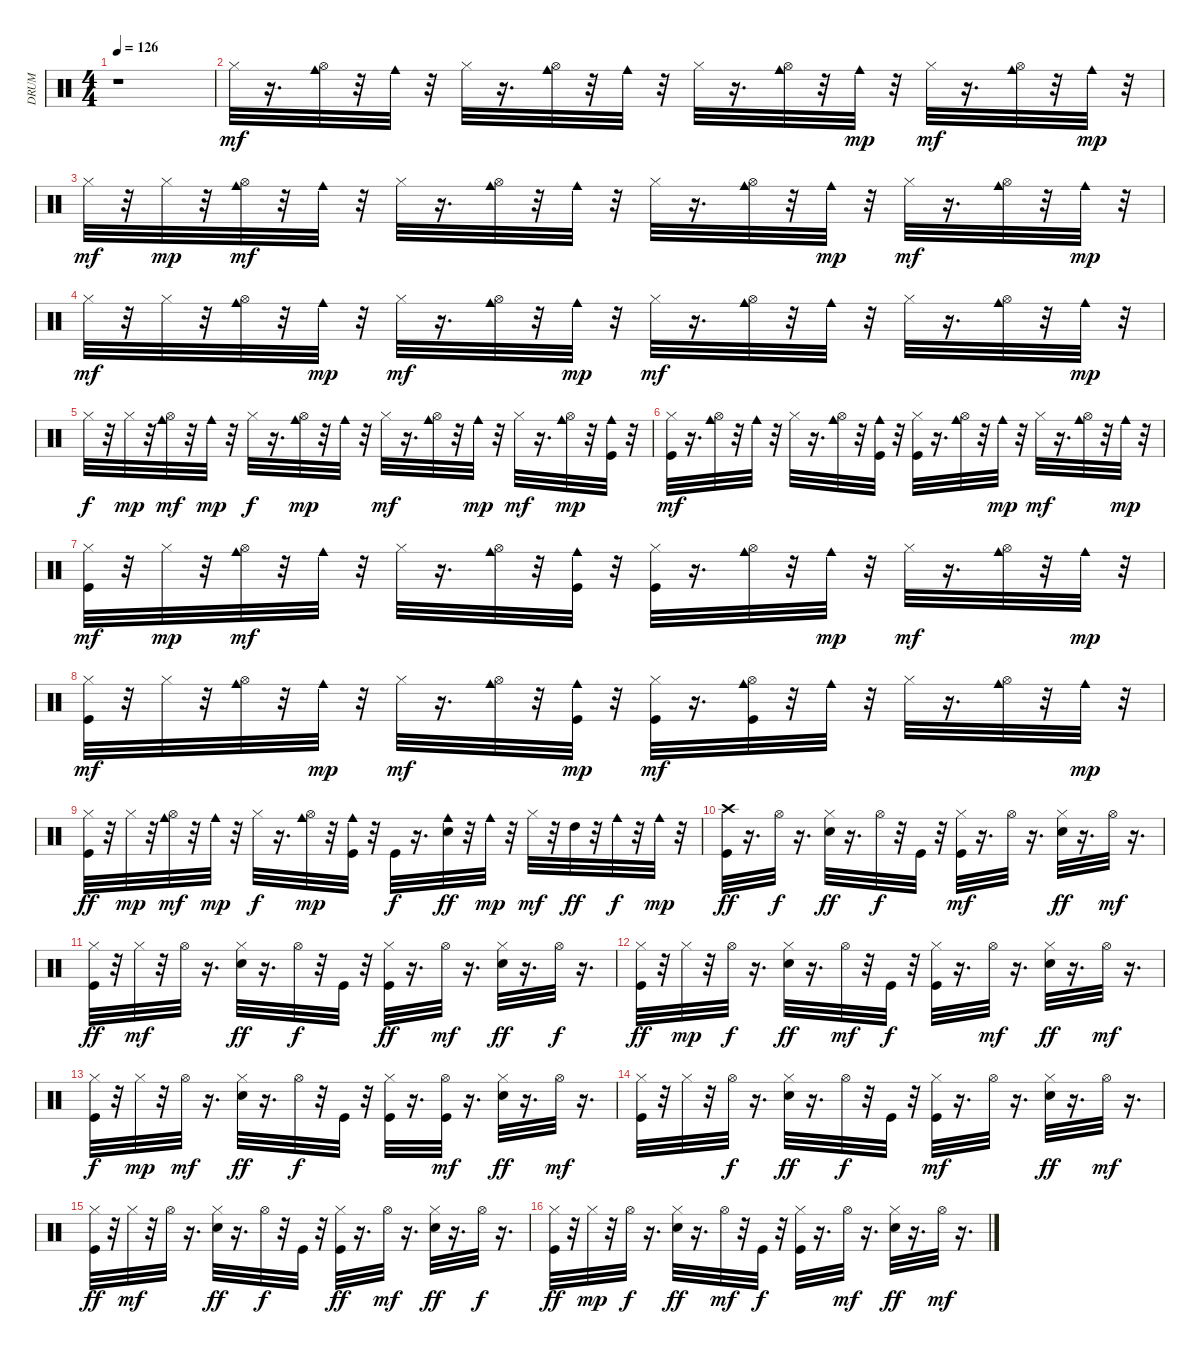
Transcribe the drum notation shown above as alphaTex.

\track ("DRUM" "DRUM") {instrument percussion}
\staff {score}
\articulation defaults
\ts (4 4)
\tempo 126
\clef neutral
\ks c
r.1{dy mf} |
"Hi-Hat (closed)".32 r.16{d} ("Hi-Hat (open)" "Cowbell medium (hit)").32 r.32 "Cowbell medium (hit)".32 r.32 "Hi-Hat (closed)".32 r.16{d} ("Hi-Hat (open)" "Cowbell medium (hit)").32 r.32 "Cowbell medium (hit)".32 r.32 "Hi-Hat (closed)".32 r.16{d} ("Hi-Hat (open)" "Cowbell medium (hit)").32 r.32 "Cowbell medium (hit)".32{dy mp} r.32 "Hi-Hat (closed)".32{dy mf} r.16{d} ("Hi-Hat (open)" "Cowbell medium (hit)").32 r.32 "Cowbell medium (hit)".32{dy mp} r.32 |
"Hi-Hat (closed)".32{dy mf} r.32 "Hi-Hat (closed)".32{dy mp} r.32 ("Hi-Hat (open)" "Cowbell medium (hit)").32{dy mf} r.32 "Cowbell medium (hit)".32 r.32 "Hi-Hat (closed)".32 r.16{d} ("Hi-Hat (open)" "Cowbell medium (hit)").32 r.32 "Cowbell medium (hit)".32 r.32 "Hi-Hat (closed)".32 r.16{d} ("Hi-Hat (open)" "Cowbell medium (hit)").32 r.32 "Cowbell medium (hit)".32{dy mp} r.32 "Hi-Hat (closed)".32{dy mf} r.16{d} ("Hi-Hat (open)" "Cowbell medium (hit)").32 r.32 "Cowbell medium (hit)".32{dy mp} r.32 |
"Hi-Hat (closed)".32{dy mf} r.32 "Hi-Hat (closed)".32 r.32 ("Hi-Hat (open)" "Cowbell medium (hit)").32 r.32 "Cowbell medium (hit)".32{dy mp} r.32 "Hi-Hat (closed)".32{dy mf} r.16{d} ("Hi-Hat (open)" "Cowbell medium (hit)").32 r.32 "Cowbell medium (hit)".32{dy mp} r.32 "Hi-Hat (closed)".32{dy mf} r.16{d} ("Hi-Hat (open)" "Cowbell medium (hit)").32 r.32 "Cowbell medium (hit)".32 r.32 "Hi-Hat (closed)".32 r.16{d} ("Hi-Hat (open)" "Cowbell medium (hit)").32 r.32 "Cowbell medium (hit)".32{dy mp} r.32 |
"Hi-Hat (closed)".32{dy f} r.32 "Hi-Hat (closed)".32{dy mp} r.32 ("Hi-Hat (open)" "Cowbell medium (hit)").32{dy mf} r.32 "Cowbell medium (hit)".32{dy mp} r.32 "Hi-Hat (closed)".32{dy f} r.16{d} ("Hi-Hat (open)" "Cowbell medium (hit)").32{dy mp} r.32 "Cowbell medium (hit)".32 r.32 "Hi-Hat (closed)".32{dy mf} r.16{d} ("Hi-Hat (open)" "Cowbell medium (hit)").32 r.32 "Cowbell medium (hit)".32{dy mp} r.32 "Hi-Hat (closed)".32{dy mf} r.16{d} ("Hi-Hat (open)" "Cowbell medium (hit)").32{dy mp} r.32 ("Kick (hit)" "Cowbell medium (hit)").32 r.32 |
("Kick (hit)" "Hi-Hat (closed)").32{dy mf} r.16{d} ("Hi-Hat (open)" "Cowbell medium (hit)").32 r.32 "Cowbell medium (hit)".32 r.32 "Hi-Hat (closed)".32 r.16{d} ("Hi-Hat (open)" "Cowbell medium (hit)").32 r.32 ("Kick (hit)" "Cowbell medium (hit)").32 r.32 ("Kick (hit)" "Hi-Hat (closed)").32 r.16{d} ("Hi-Hat (open)" "Cowbell medium (hit)").32 r.32 "Cowbell medium (hit)".32{dy mp} r.32 "Hi-Hat (closed)".32{dy mf} r.16{d} ("Hi-Hat (open)" "Cowbell medium (hit)").32 r.32 "Cowbell medium (hit)".32{dy mp} r.32 |
("Kick (hit)" "Hi-Hat (closed)").32{dy mf} r.32 "Hi-Hat (closed)".32{dy mp} r.32 ("Hi-Hat (open)" "Cowbell medium (hit)").32{dy mf} r.32 "Cowbell medium (hit)".32 r.32 "Hi-Hat (closed)".32 r.16{d} ("Hi-Hat (open)" "Cowbell medium (hit)").32 r.32 ("Kick (hit)" "Cowbell medium (hit)").32 r.32 ("Kick (hit)" "Hi-Hat (closed)").32 r.16{d} ("Hi-Hat (open)" "Cowbell medium (hit)").32 r.32 "Cowbell medium (hit)".32{dy mp} r.32 "Hi-Hat (closed)".32{dy mf} r.16{d} ("Hi-Hat (open)" "Cowbell medium (hit)").32 r.32 "Cowbell medium (hit)".32{dy mp} r.32 |
("Kick (hit)" "Hi-Hat (closed)").32{dy mf} r.32 "Hi-Hat (closed)".32 r.32 ("Hi-Hat (open)" "Cowbell medium (hit)").32 r.32 "Cowbell medium (hit)".32{dy mp} r.32 "Hi-Hat (closed)".32{dy mf} r.16{d} ("Hi-Hat (open)" "Cowbell medium (hit)").32 r.32 ("Kick (hit)" "Cowbell medium (hit)").32{dy mp} r.32 ("Kick (hit)" "Hi-Hat (closed)").32{dy mf} r.16{d} ("Kick (hit)" "Hi-Hat (open)" "Cowbell medium (hit)").32 r.32 "Cowbell medium (hit)".32 r.32 "Hi-Hat (closed)".32 r.16{d} ("Hi-Hat (open)" "Cowbell medium (hit)").32 r.32 "Cowbell medium (hit)".32{dy mp} r.32 |
("Kick (hit)" "Hi-Hat (closed)").32{dy ff} r.32 "Hi-Hat (closed)".32{dy mp} r.32 ("Hi-Hat (open)" "Cowbell medium (hit)").32{dy mf} r.32 "Cowbell medium (hit)".32{dy mp} r.32 "Hi-Hat (closed)".32{dy f} r.16{d} ("Hi-Hat (open)" "Cowbell medium (hit)").32{dy mp} r.32 ("Kick (hit)" "Cowbell medium (hit)").32 r.32 "Kick (hit)".32{dy f} r.16{d} ("Electric Snare (hit)" "Cowbell medium (hit)").32{dy ff} r.32 "Cowbell medium (hit)".32{dy mp} r.32 "Hi-Hat (closed)".32{dy mf} r.32 "High Tom (hit)".32{dy ff} r.32 "Cowbell medium (hit)".32{dy f} r.32 "Cowbell medium (hit)".32{dy mp} r.32 |
("Kick (hit)" "Crash high (hit)").32{dy ff} r.16{d} "Hi-Hat (open)".32{dy f} r.16{d} ("Electric Snare (hit)" "Hi-Hat (closed)").32{dy ff} r.16{d} "Hi-Hat (open)".32{dy f} r.32 "Kick (hit)".32 r.32 ("Kick (hit)" "Hi-Hat (closed)").32{dy mf} r.16{d} "Hi-Hat (open)".32 r.16{d} ("Electric Snare (hit)" "Hi-Hat (closed)").32{dy ff} r.16{d} "Hi-Hat (open)".32{dy mf} r.16{d} |
("Kick (hit)" "Hi-Hat (closed)").32{dy ff} r.32 "Hi-Hat (closed)".32{dy mf} r.32 "Hi-Hat (open)".32 r.16{d} ("Electric Snare (hit)" "Hi-Hat (closed)").32{dy ff} r.16{d} "Hi-Hat (open)".32{dy f} r.32 "Kick (hit)".32 r.32 ("Kick (hit)" "Hi-Hat (closed)").32{dy ff} r.16{d} "Hi-Hat (open)".32{dy mf} r.16{d} ("Electric Snare (hit)" "Hi-Hat (closed)").32{dy ff} r.16{d} "Hi-Hat (open)".32{dy f} r.16{d} |
("Kick (hit)" "Hi-Hat (closed)").32{dy ff} r.32 "Hi-Hat (closed)".32{dy mp} r.32 "Hi-Hat (open)".32{dy f} r.16{d} ("Electric Snare (hit)" "Hi-Hat (closed)").32{dy ff} r.16{d} "Hi-Hat (open)".32{dy mf} r.32 "Kick (hit)".32{dy f} r.32 ("Kick (hit)" "Hi-Hat (closed)").32 r.16{d} "Hi-Hat (open)".32{dy mf} r.16{d} ("Electric Snare (hit)" "Hi-Hat (closed)").32{dy ff} r.16{d} "Hi-Hat (open)".32{dy mf} r.16{d} |
("Kick (hit)" "Hi-Hat (closed)").32{dy f} r.32 "Hi-Hat (closed)".32{dy mp} r.32 "Hi-Hat (open)".32{dy mf} r.16{d} ("Electric Snare (hit)" "Hi-Hat (closed)").32{dy ff} r.16{d} "Hi-Hat (open)".32{dy f} r.32 "Kick (hit)".32 r.32 ("Kick (hit)" "Hi-Hat (closed)").32 r.16{d} ("Kick (hit)" "Hi-Hat (open)").32{dy mf} r.16{d} ("Electric Snare (hit)" "Hi-Hat (closed)").32{dy ff} r.16{d} "Hi-Hat (open)".32{dy mf} r.16{d} |
("Kick (hit)" "Hi-Hat (closed)").32 r.32 "Hi-Hat (closed)".32 r.32 "Hi-Hat (open)".32{dy f} r.16{d} ("Electric Snare (hit)" "Hi-Hat (closed)").32{dy ff} r.16{d} "Hi-Hat (open)".32{dy f} r.32 "Kick (hit)".32 r.32 ("Kick (hit)" "Hi-Hat (closed)").32{dy mf} r.16{d} "Hi-Hat (open)".32 r.16{d} ("Electric Snare (hit)" "Hi-Hat (closed)").32{dy ff} r.16{d} "Hi-Hat (open)".32{dy mf} r.16{d} |
("Kick (hit)" "Hi-Hat (closed)").32{dy ff} r.32 "Hi-Hat (closed)".32{dy mf} r.32 "Hi-Hat (open)".32 r.16{d} ("Electric Snare (hit)" "Hi-Hat (closed)").32{dy ff} r.16{d} "Hi-Hat (open)".32{dy f} r.32 "Kick (hit)".32 r.32 ("Kick (hit)" "Hi-Hat (closed)").32{dy ff} r.16{d} "Hi-Hat (open)".32{dy mf} r.16{d} ("Electric Snare (hit)" "Hi-Hat (closed)").32{dy ff} r.16{d} "Hi-Hat (open)".32{dy f} r.16{d} |
("Kick (hit)" "Hi-Hat (closed)").32{dy ff} r.32 "Hi-Hat (closed)".32{dy mp} r.32 "Hi-Hat (open)".32{dy f} r.16{d} ("Electric Snare (hit)" "Hi-Hat (closed)").32{dy ff} r.16{d} "Hi-Hat (open)".32{dy mf} r.32 "Kick (hit)".32{dy f} r.32 ("Kick (hit)" "Hi-Hat (closed)").32 r.16{d} "Hi-Hat (open)".32{dy mf} r.16{d} ("Electric Snare (hit)" "Hi-Hat (closed)").32{dy ff} r.16{d} "Hi-Hat (open)".32{dy mf} r.16{d}
